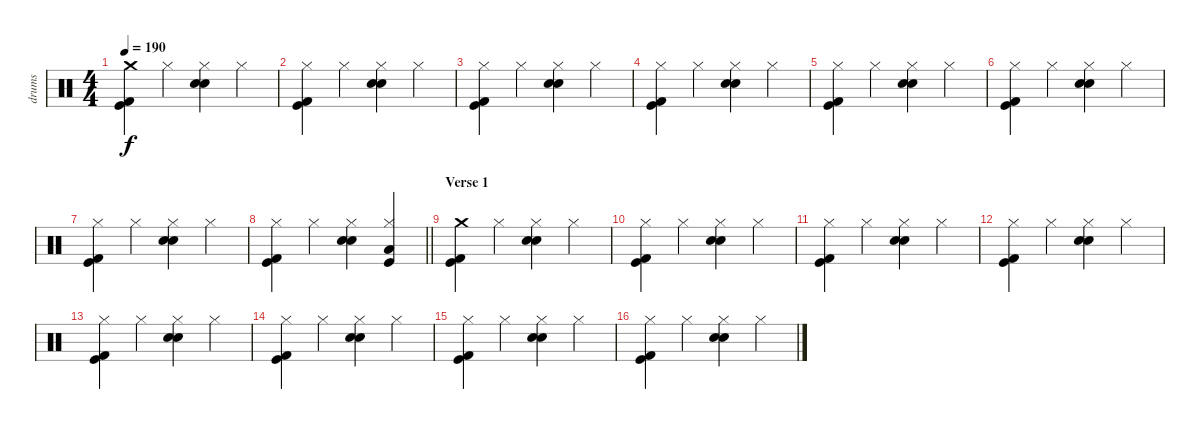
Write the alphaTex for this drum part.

\track ("drums" "drums") {instrument percussion}
\staff {score}
\articulation defaults
\ts (4 4)
\tempo 190
\clef neutral
\ks c
("Crash medium (hit)" "Kick (hit) 2" "Kick (hit)").4{dy f} "Hi-Hat (closed)".4 ("Hi-Hat (closed)" "Electric Snare (hit)" "Snare (hit) 2").4 "Hi-Hat (closed)".4 |
("Hi-Hat (closed)" "Kick (hit) 2" "Kick (hit)").4 "Hi-Hat (closed)".4 ("Hi-Hat (closed)" "Electric Snare (hit)" "Snare (hit) 2").4 "Hi-Hat (closed)".4 |
("Hi-Hat (closed)" "Kick (hit) 2" "Kick (hit)").4 "Hi-Hat (closed)".4 ("Hi-Hat (closed)" "Electric Snare (hit)" "Snare (hit) 2").4 "Hi-Hat (closed)".4 |
("Hi-Hat (closed)" "Kick (hit) 2" "Kick (hit)").4 "Hi-Hat (closed)".4 ("Hi-Hat (closed)" "Electric Snare (hit)" "Snare (hit) 2").4 "Hi-Hat (closed)".4 |
("Hi-Hat (closed)" "Kick (hit) 2" "Kick (hit)").4 "Hi-Hat (closed)".4 ("Hi-Hat (closed)" "Electric Snare (hit)" "Snare (hit) 2").4 "Hi-Hat (closed)".4 |
("Hi-Hat (closed)" "Kick (hit) 2" "Kick (hit)").4 "Hi-Hat (closed)".4 ("Hi-Hat (closed)" "Electric Snare (hit)" "Snare (hit) 2").4 "Hi-Hat (closed)".4 |
("Hi-Hat (closed)" "Kick (hit) 2" "Kick (hit)").4 "Hi-Hat (closed)".4 ("Hi-Hat (closed)" "Electric Snare (hit)" "Snare (hit) 2").4 "Hi-Hat (closed)".4 |
\barLineRight lightlight
("Hi-Hat (closed)" "Kick (hit) 2" "Kick (hit)").4 "Hi-Hat (closed)".4 ("Hi-Hat (closed)" "Electric Snare (hit)" "Snare (hit) 2").4 ("Hi-Hat (closed)" "Low Tom (hit)" "Kick (hit)").4 |
\section ("" "Verse 1")
("Crash medium (hit)" "Kick (hit) 2" "Kick (hit)").4 "Hi-Hat (closed)".4 ("Hi-Hat (closed)" "Electric Snare (hit)" "Snare (hit) 2").4 "Hi-Hat (closed)".4 |
("Hi-Hat (closed)" "Kick (hit) 2" "Kick (hit)").4 "Hi-Hat (closed)".4 ("Hi-Hat (closed)" "Electric Snare (hit)" "Snare (hit) 2").4 "Hi-Hat (closed)".4 |
("Hi-Hat (closed)" "Kick (hit) 2" "Kick (hit)").4 "Hi-Hat (closed)".4 ("Hi-Hat (closed)" "Electric Snare (hit)" "Snare (hit) 2").4 "Hi-Hat (closed)".4 |
("Hi-Hat (closed)" "Kick (hit) 2" "Kick (hit)").4 "Hi-Hat (closed)".4 ("Hi-Hat (closed)" "Electric Snare (hit)" "Snare (hit) 2").4 "Hi-Hat (closed)".4 |
("Hi-Hat (closed)" "Kick (hit) 2" "Kick (hit)").4 "Hi-Hat (closed)".4 ("Hi-Hat (closed)" "Electric Snare (hit)" "Snare (hit) 2").4 "Hi-Hat (closed)".4 |
("Hi-Hat (closed)" "Kick (hit) 2" "Kick (hit)").4 "Hi-Hat (closed)".4 ("Hi-Hat (closed)" "Electric Snare (hit)" "Snare (hit) 2").4 "Hi-Hat (closed)".4 |
("Hi-Hat (closed)" "Kick (hit) 2" "Kick (hit)").4 "Hi-Hat (closed)".4 ("Hi-Hat (closed)" "Electric Snare (hit)" "Snare (hit) 2").4 "Hi-Hat (closed)".4 |
("Hi-Hat (closed)" "Kick (hit) 2" "Kick (hit)").4 "Hi-Hat (closed)".4 ("Hi-Hat (closed)" "Electric Snare (hit)" "Snare (hit) 2").4 "Hi-Hat (closed)".4
